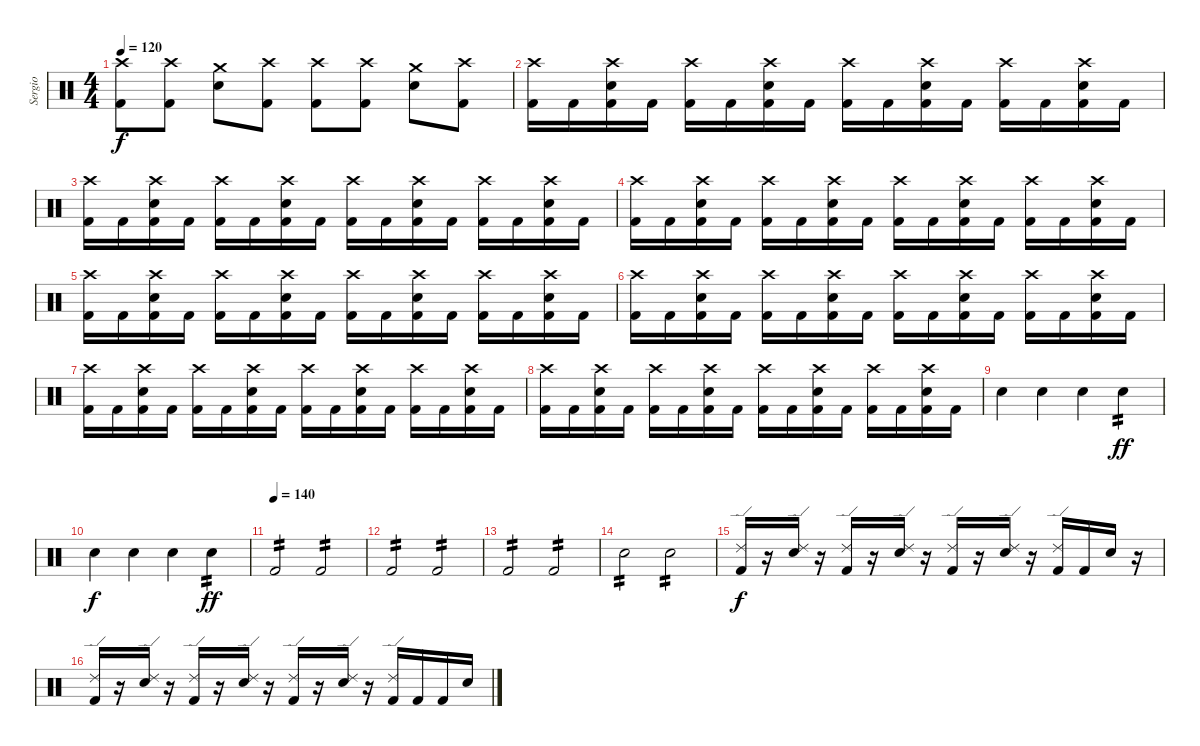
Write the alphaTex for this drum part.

\track ("Sergio" "Sergio") {instrument percussion}
\staff {score}
\articulation defaults
\ts (4 4)
\tempo 120
\clef neutral
\ks c
("Kick (hit) 2" "Crash high (hit)").8{dy f} ("Kick (hit) 2" "Crash high (hit)").8 ("Electric Snare (hit)" "Crash medium (hit)").8 ("Kick (hit) 2" "Crash high (hit)").8 ("Kick (hit) 2" "Crash high (hit)").8 ("Kick (hit) 2" "Crash high (hit)").8 ("Electric Snare (hit)" "Crash medium (hit)").8 ("Kick (hit) 2" "Crash high (hit)").8 |
("Crash high (hit)" "Kick (hit) 2").16 "Kick (hit) 2".16 ("Crash high (hit)" "Electric Snare (hit)" "Kick (hit) 2").16 "Kick (hit) 2".16 ("Crash high (hit)" "Kick (hit) 2").16 "Kick (hit) 2".16 ("Crash high (hit)" "Electric Snare (hit)" "Kick (hit) 2").16 "Kick (hit) 2".16 ("Crash high (hit)" "Kick (hit) 2").16 "Kick (hit) 2".16 ("Crash high (hit)" "Electric Snare (hit)" "Kick (hit) 2").16 "Kick (hit) 2".16 ("Crash high (hit)" "Kick (hit) 2").16 "Kick (hit) 2".16 ("Crash high (hit)" "Electric Snare (hit)" "Kick (hit) 2").16 "Kick (hit) 2".16 |
("Crash high (hit)" "Kick (hit) 2").16 "Kick (hit) 2".16 ("Crash high (hit)" "Electric Snare (hit)" "Kick (hit) 2").16 "Kick (hit) 2".16 ("Crash high (hit)" "Kick (hit) 2").16 "Kick (hit) 2".16 ("Crash high (hit)" "Electric Snare (hit)" "Kick (hit) 2").16 "Kick (hit) 2".16 ("Crash high (hit)" "Kick (hit) 2").16 "Kick (hit) 2".16 ("Crash high (hit)" "Electric Snare (hit)" "Kick (hit) 2").16 "Kick (hit) 2".16 ("Crash high (hit)" "Kick (hit) 2").16 "Kick (hit) 2".16 ("Crash high (hit)" "Electric Snare (hit)" "Kick (hit) 2").16 "Kick (hit) 2".16 |
("Crash high (hit)" "Kick (hit) 2").16 "Kick (hit) 2".16 ("Crash high (hit)" "Electric Snare (hit)" "Kick (hit) 2").16 "Kick (hit) 2".16 ("Crash high (hit)" "Kick (hit) 2").16 "Kick (hit) 2".16 ("Crash high (hit)" "Electric Snare (hit)" "Kick (hit) 2").16 "Kick (hit) 2".16 ("Crash high (hit)" "Kick (hit) 2").16 "Kick (hit) 2".16 ("Crash high (hit)" "Electric Snare (hit)" "Kick (hit) 2").16 "Kick (hit) 2".16 ("Crash high (hit)" "Kick (hit) 2").16 "Kick (hit) 2".16 ("Crash high (hit)" "Electric Snare (hit)" "Kick (hit) 2").16 "Kick (hit) 2".16 |
("Crash high (hit)" "Kick (hit) 2").16 "Kick (hit) 2".16 ("Crash high (hit)" "Electric Snare (hit)" "Kick (hit) 2").16 "Kick (hit) 2".16 ("Crash high (hit)" "Kick (hit) 2").16 "Kick (hit) 2".16 ("Crash high (hit)" "Electric Snare (hit)" "Kick (hit) 2").16 "Kick (hit) 2".16 ("Crash high (hit)" "Kick (hit) 2").16 "Kick (hit) 2".16 ("Crash high (hit)" "Electric Snare (hit)" "Kick (hit) 2").16 "Kick (hit) 2".16 ("Crash high (hit)" "Kick (hit) 2").16 "Kick (hit) 2".16 ("Crash high (hit)" "Electric Snare (hit)" "Kick (hit) 2").16 "Kick (hit) 2".16 |
("Crash high (hit)" "Kick (hit) 2").16 "Kick (hit) 2".16 ("Crash high (hit)" "Electric Snare (hit)" "Kick (hit) 2").16 "Kick (hit) 2".16 ("Crash high (hit)" "Kick (hit) 2").16 "Kick (hit) 2".16 ("Crash high (hit)" "Electric Snare (hit)" "Kick (hit) 2").16 "Kick (hit) 2".16 ("Crash high (hit)" "Kick (hit) 2").16 "Kick (hit) 2".16 ("Crash high (hit)" "Electric Snare (hit)" "Kick (hit) 2").16 "Kick (hit) 2".16 ("Crash high (hit)" "Kick (hit) 2").16 "Kick (hit) 2".16 ("Crash high (hit)" "Electric Snare (hit)" "Kick (hit) 2").16 "Kick (hit) 2".16 |
("Crash high (hit)" "Kick (hit) 2").16 "Kick (hit) 2".16 ("Crash high (hit)" "Electric Snare (hit)" "Kick (hit) 2").16 "Kick (hit) 2".16 ("Crash high (hit)" "Kick (hit) 2").16 "Kick (hit) 2".16 ("Crash high (hit)" "Electric Snare (hit)" "Kick (hit) 2").16 "Kick (hit) 2".16 ("Crash high (hit)" "Kick (hit) 2").16 "Kick (hit) 2".16 ("Crash high (hit)" "Electric Snare (hit)" "Kick (hit) 2").16 "Kick (hit) 2".16 ("Crash high (hit)" "Kick (hit) 2").16 "Kick (hit) 2".16 ("Crash high (hit)" "Electric Snare (hit)" "Kick (hit) 2").16 "Kick (hit) 2".16 |
("Crash high (hit)" "Kick (hit) 2").16 "Kick (hit) 2".16 ("Crash high (hit)" "Electric Snare (hit)" "Kick (hit) 2").16 "Kick (hit) 2".16 ("Crash high (hit)" "Kick (hit) 2").16 "Kick (hit) 2".16 ("Crash high (hit)" "Electric Snare (hit)" "Kick (hit) 2").16 "Kick (hit) 2".16 ("Crash high (hit)" "Kick (hit) 2").16 "Kick (hit) 2".16 ("Crash high (hit)" "Electric Snare (hit)" "Kick (hit) 2").16 "Kick (hit) 2".16 ("Crash high (hit)" "Kick (hit) 2").16 "Kick (hit) 2".16 ("Crash high (hit)" "Electric Snare (hit)" "Kick (hit) 2").16 "Kick (hit) 2".16 |
"Electric Snare (hit)".4 "Electric Snare (hit)".4 "Electric Snare (hit)".4 "Electric Snare (hit)".4{tp 2 dy ff} |
"Electric Snare (hit)".4{dy f} "Electric Snare (hit)".4 "Electric Snare (hit)".4 "Electric Snare (hit)".4{tp 2 dy ff} |
\tempo (140)
"Kick (hit) 2".2{tp 2} "Kick (hit) 2".2{tp 2} |
"Kick (hit) 2".2{tp 2} "Kick (hit) 2".2{tp 2} |
"Kick (hit) 2".2{tp 2} "Kick (hit) 2".2{tp 2} |
"Electric Snare (hit)".2{tp 2} "Electric Snare (hit)".2{tp 2} |
("Kick (hit) 2" "Ride (edge) 2").16{dy f} r.16 ("Electric Snare (hit)" "Ride (edge) 2").16 r.16 ("Kick (hit) 2" "Ride (edge) 2").16 r.16 ("Electric Snare (hit)" "Ride (edge) 2").16 r.16 ("Kick (hit) 2" "Ride (edge) 2").16 r.16 ("Electric Snare (hit)" "Ride (edge) 2").16 r.16 ("Kick (hit) 2" "Ride (edge) 2").16 "Kick (hit) 2".16 "Electric Snare (hit)".16 r.16 |
("Kick (hit) 2" "Ride (edge) 2").16 r.16 ("Electric Snare (hit)" "Ride (edge) 2").16 r.16 ("Kick (hit) 2" "Ride (edge) 2").16 r.16 ("Electric Snare (hit)" "Ride (edge) 2").16 r.16 ("Kick (hit) 2" "Ride (edge) 2").16 r.16 ("Electric Snare (hit)" "Ride (edge) 2").16 r.16 ("Kick (hit) 2" "Ride (edge) 2").16 "Kick (hit) 2".16 "Kick (hit) 2".16 "Electric Snare (hit)".16
